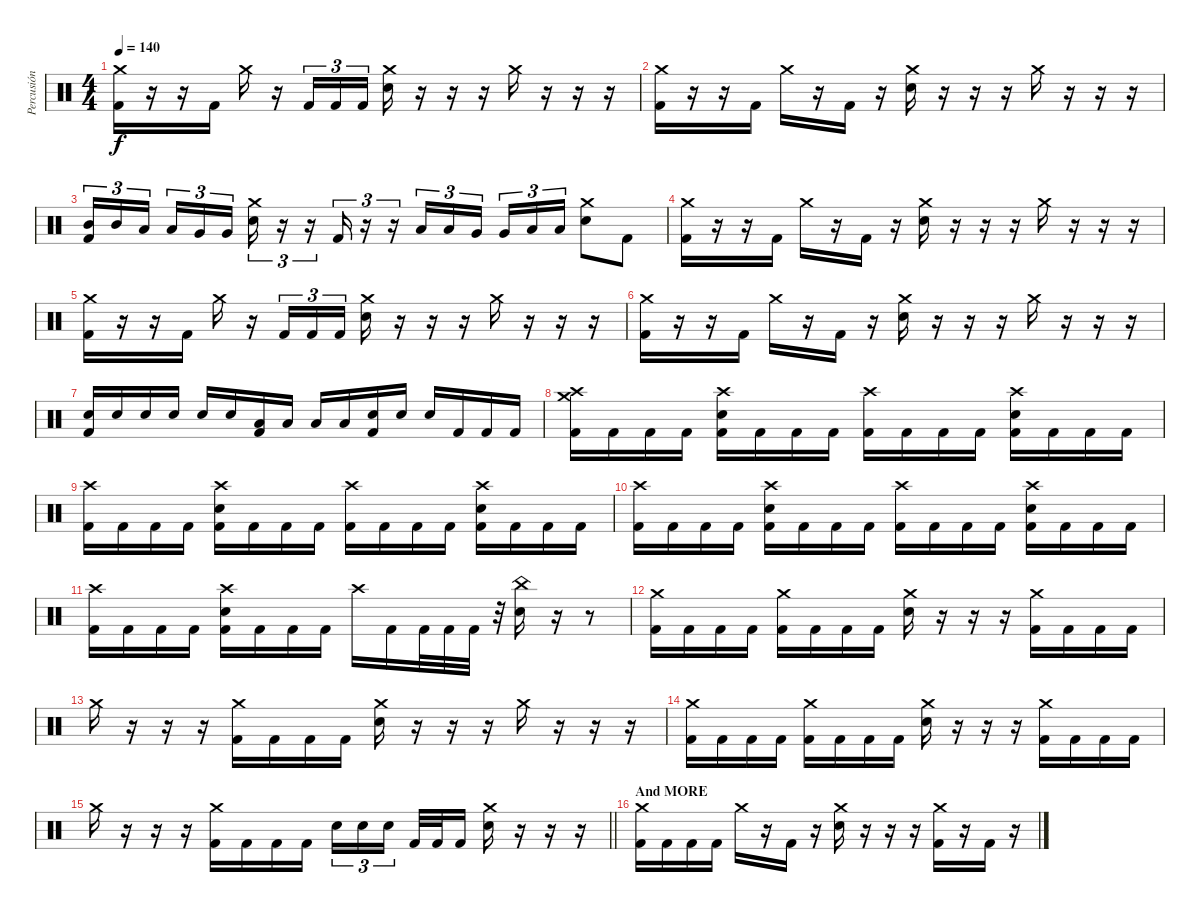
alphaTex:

\track ("Percusión" "Percusión") {instrument percussion}
\staff {score}
\articulation defaults
\ts (4 4)
\tempo 140
\clef neutral
\ks c
("Crash medium (hit)" "Kick (hit) 2").16{dy f} r.16 r.16 "Kick (hit) 2".16 "Crash medium (hit)".16 r.16 "Kick (hit) 2".16{tu (3 2)} "Kick (hit) 2".16{tu (3 2)} "Kick (hit) 2".16{tu (3 2)} ("Crash medium (hit)" "Electric Snare (hit)").16 r.16 r.16 r.16 "Crash medium (hit)".16 r.16 r.16 r.16 |
("Crash medium (hit)" "Kick (hit) 2").16 r.16 r.16 "Kick (hit) 2".16 "Crash medium (hit)".16 r.16 "Kick (hit) 2".16 r.16 ("Crash medium (hit)" "Electric Snare (hit)").16 r.16 r.16 r.16 "Crash medium (hit)".16 r.16 r.16 r.16 |
("Mid Tom (hit)" "Kick (hit) 2").16{tu (3 2)} "Mid Tom (hit)".16{tu (3 2)} "Low Tom (hit)".16{tu (3 2) beam splitsecondary} "Low Tom (hit)".16{tu (3 2)} "Very Low Tom (hit)".16{tu (3 2)} "Very Low Tom (hit)".16{tu (3 2)} ("Crash medium (hit)" "Electric Snare (hit)").16{tu (3 2)} r.16{tu (3 2)} r.16{tu (3 2)} "Kick (hit) 2".16{tu (3 2)} r.16{tu (3 2)} r.16{tu (3 2)} "Low Tom (hit)".16{tu (3 2)} "Low Tom (hit)".16{tu (3 2)} "Very Low Tom (hit)".16{tu (3 2) beam splitsecondary} "Very Low Tom (hit)".16{tu (3 2)} "Low Floor Tom (hit)".16{tu (3 2)} "Low Floor Tom (hit)".16{tu (3 2)} ("Crash medium (hit)" "Electric Snare (hit)").8 "Kick (hit) 2".8 |
("Crash medium (hit)" "Kick (hit) 2").16 r.16 r.16 "Kick (hit) 2".16 "Crash medium (hit)".16 r.16 "Kick (hit) 2".16 r.16 ("Crash medium (hit)" "Electric Snare (hit)").16 r.16 r.16 r.16 "Crash medium (hit)".16 r.16 r.16 r.16 |
("Crash medium (hit)" "Kick (hit) 2").16 r.16 r.16 "Kick (hit) 2".16 "Crash medium (hit)".16 r.16 "Kick (hit) 2".16{tu (3 2)} "Kick (hit) 2".16{tu (3 2)} "Kick (hit) 2".16{tu (3 2)} ("Crash medium (hit)" "Electric Snare (hit)").16 r.16 r.16 r.16 "Crash medium (hit)".16 r.16 r.16 r.16 |
("Crash medium (hit)" "Kick (hit) 2").16 r.16 r.16 "Kick (hit) 2".16 "Crash medium (hit)".16 r.16 "Kick (hit) 2".16 r.16 ("Crash medium (hit)" "Electric Snare (hit)").16 r.16 r.16 r.16 "Crash medium (hit)".16 r.16 r.16 r.16 |
("Electric Snare (hit)" "Kick (hit) 2").16 "Electric Snare (hit)".16 "Electric Snare (hit)".16 "Electric Snare (hit)".16 "Electric Snare (hit)".16 "Electric Snare (hit)".16 ("Low Tom (hit)" "Kick (hit) 2").16 "Low Tom (hit)".16 "Low Tom (hit)".16 "Low Tom (hit)".16 ("Electric Snare (hit)" "Kick (hit) 2").16 "Electric Snare (hit)".16 "Electric Snare (hit)".16 "Kick (hit) 2".16 "Kick (hit) 2".16 "Kick (hit) 2".16 |
("Crash medium (hit)" "Crash high (hit)" "Kick (hit) 2").16 "Kick (hit) 2".16 "Kick (hit) 2".16 "Kick (hit) 2".16 ("Crash high (hit)" "Electric Snare (hit)" "Kick (hit) 2").16 "Kick (hit) 2".16 "Kick (hit) 2".16 "Kick (hit) 2".16 ("Crash high (hit)" "Kick (hit) 2").16 "Kick (hit) 2".16 "Kick (hit) 2".16 "Kick (hit) 2".16 ("Crash high (hit)" "Electric Snare (hit)" "Kick (hit) 2").16 "Kick (hit) 2".16 "Kick (hit) 2".16 "Kick (hit) 2".16 |
("Crash high (hit)" "Kick (hit) 2").16 "Kick (hit) 2".16 "Kick (hit) 2".16 "Kick (hit) 2".16 ("Crash high (hit)" "Electric Snare (hit)" "Kick (hit) 2").16 "Kick (hit) 2".16 "Kick (hit) 2".16 "Kick (hit) 2".16 ("Crash high (hit)" "Kick (hit) 2").16 "Kick (hit) 2".16 "Kick (hit) 2".16 "Kick (hit) 2".16 ("Crash high (hit)" "Electric Snare (hit)" "Kick (hit) 2").16 "Kick (hit) 2".16 "Kick (hit) 2".16 "Kick (hit) 2".16 |
("Crash high (hit)" "Kick (hit) 2").16 "Kick (hit) 2".16 "Kick (hit) 2".16 "Kick (hit) 2".16 ("Crash high (hit)" "Electric Snare (hit)" "Kick (hit) 2").16 "Kick (hit) 2".16 "Kick (hit) 2".16 "Kick (hit) 2".16 ("Crash high (hit)" "Kick (hit) 2").16 "Kick (hit) 2".16 "Kick (hit) 2".16 "Kick (hit) 2".16 ("Crash high (hit)" "Electric Snare (hit)" "Kick (hit) 2").16 "Kick (hit) 2".16 "Kick (hit) 2".16 "Kick (hit) 2".16 |
("Crash high (hit)" "Kick (hit) 2").16 "Kick (hit) 2".16 "Kick (hit) 2".16 "Kick (hit) 2".16 ("Crash high (hit)" "Electric Snare (hit)" "Kick (hit) 2").16 "Kick (hit) 2".16 "Kick (hit) 2".16 "Kick (hit) 2".16 "Crash high (hit)".16 "Kick (hit) 2".16 "Kick (hit) 2".32 "Kick (hit) 2".32 "Kick (hit) 2".32 r.32 ("China (hit)" "Electric Snare (hit)").16 r.16 r.8 |
("Crash medium (hit)" "Kick (hit) 2").16 "Kick (hit) 2".16 "Kick (hit) 2".16 "Kick (hit) 2".16 ("Crash medium (hit)" "Kick (hit) 2").16 "Kick (hit) 2".16 "Kick (hit) 2".16 "Kick (hit) 2".16 ("Crash medium (hit)" "Electric Snare (hit)").16 r.16 r.16 r.16 ("Crash medium (hit)" "Kick (hit) 2").16 "Kick (hit) 2".16 "Kick (hit) 2".16 "Kick (hit) 2".16 |
"Crash medium (hit)".16 r.16 r.16 r.16 ("Crash medium (hit)" "Kick (hit) 2").16 "Kick (hit) 2".16 "Kick (hit) 2".16 "Kick (hit) 2".16 ("Crash medium (hit)" "Electric Snare (hit)").16 r.16 r.16 r.16 "Crash medium (hit)".16 r.16 r.16 r.16 |
("Crash medium (hit)" "Kick (hit) 2").16 "Kick (hit) 2".16 "Kick (hit) 2".16 "Kick (hit) 2".16 ("Crash medium (hit)" "Kick (hit) 2").16 "Kick (hit) 2".16 "Kick (hit) 2".16 "Kick (hit) 2".16 ("Crash medium (hit)" "Electric Snare (hit)").16 r.16 r.16 r.16 ("Crash medium (hit)" "Kick (hit) 2").16 "Kick (hit) 2".16 "Kick (hit) 2".16 "Kick (hit) 2".16 |
\barLineRight lightlight "Crash medium (hit)".16
r.16 r.16 r.16 ("Crash medium (hit)" "Kick (hit) 2").16 "Kick (hit) 2".16 "Kick (hit) 2".16 "Kick (hit) 2".16 "Electric Snare (hit)".16{tu (3 2)} "Electric Snare (hit)".16{tu (3 2)} "Electric Snare (hit)".16{tu (3 2) beam splitsecondary} "Kick (hit) 2".32 "Kick (hit) 2".32 "Kick (hit) 2".16 ("Crash medium (hit)" "Electric Snare (hit)").16 r.16 r.16 r.16 |
\section ("" "And MORE")
("Crash medium (hit)" "Kick (hit) 2").16 "Kick (hit) 2".16 "Kick (hit) 2".16 "Kick (hit) 2".16 "Crash medium (hit)".16 r.16 "Kick (hit) 2".16 r.16 ("Crash medium (hit)" "Electric Snare (hit)").16 r.16 r.16 r.16 ("Crash medium (hit)" "Kick (hit) 2").16 r.16 "Kick (hit) 2".16 r.16
